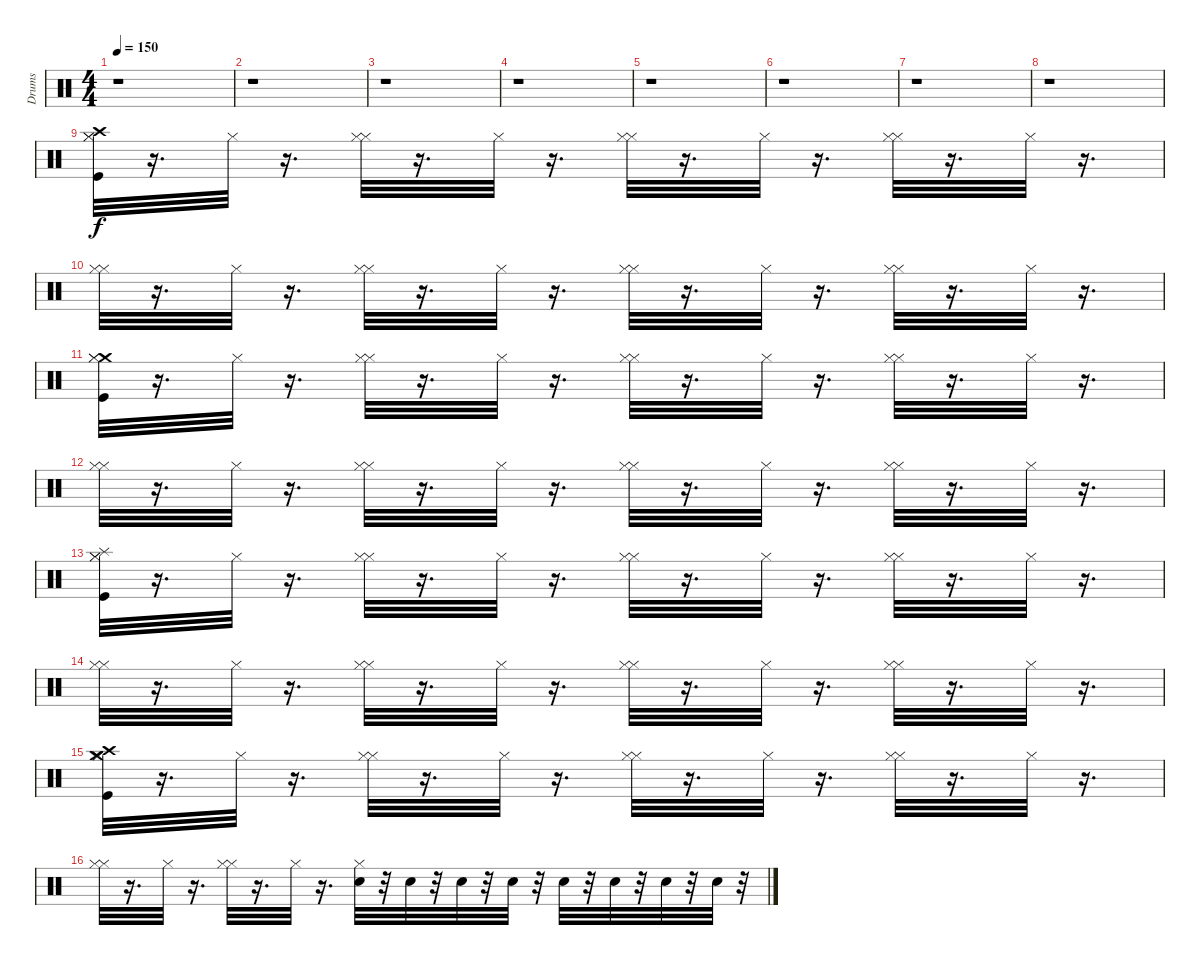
\track ("Drums" "Drums") {instrument percussion}
\staff {score}
\articulation defaults
\ts (4 4)
\tempo 150
\clef neutral
\ks c
r.1{dy f} |
r.1 |
r.1 |
r.1 |
r.1 |
r.1 |
r.1 |
r.1 |
("Crash high (hit)" "Kick (hit)" "Hi-Hat (closed)" "Hi-Hat (closed)").32 r.16{d} "Hi-Hat (closed)".32 r.16{d} ("Hi-Hat (closed)" "Hi-Hat (closed)").32 r.16{d} "Hi-Hat (closed)".32 r.16{d} ("Hi-Hat (closed)" "Hi-Hat (closed)").32 r.16{d} "Hi-Hat (closed)".32 r.16{d} ("Hi-Hat (closed)" "Hi-Hat (closed)").32 r.16{d} "Hi-Hat (closed)".32 r.16{d} |
("Hi-Hat (closed)" "Hi-Hat (closed)").32 r.16{d} "Hi-Hat (closed)".32 r.16{d} ("Hi-Hat (closed)" "Hi-Hat (closed)").32 r.16{d} "Hi-Hat (closed)".32 r.16{d} ("Hi-Hat (closed)" "Hi-Hat (closed)").32 r.16{d} "Hi-Hat (closed)".32 r.16{d} ("Hi-Hat (closed)" "Hi-Hat (closed)").32 r.16{d} "Hi-Hat (closed)".32 r.16{d} |
("Crash medium (hit)" "Kick (hit)" "Hi-Hat (closed)" "Hi-Hat (closed)").32 r.16{d} "Hi-Hat (closed)".32 r.16{d} ("Hi-Hat (closed)" "Hi-Hat (closed)").32 r.16{d} "Hi-Hat (closed)".32 r.16{d} ("Hi-Hat (closed)" "Hi-Hat (closed)").32 r.16{d} "Hi-Hat (closed)".32 r.16{d} ("Hi-Hat (closed)" "Hi-Hat (closed)").32 r.16{d} "Hi-Hat (closed)".32 r.16{d} |
("Hi-Hat (closed)" "Hi-Hat (closed)").32 r.16{d} "Hi-Hat (closed)".32 r.16{d} ("Hi-Hat (closed)" "Hi-Hat (closed)").32 r.16{d} "Hi-Hat (closed)".32 r.16{d} ("Hi-Hat (closed)" "Hi-Hat (closed)").32 r.16{d} "Hi-Hat (closed)".32 r.16{d} ("Hi-Hat (closed)" "Hi-Hat (closed)").32 r.16{d} "Hi-Hat (closed)".32 r.16{d} |
("Kick (hit)" "Splash (hit)" "Hi-Hat (closed)" "Hi-Hat (closed)").32 r.16{d} "Hi-Hat (closed)".32 r.16{d} ("Hi-Hat (closed)" "Hi-Hat (closed)").32 r.16{d} "Hi-Hat (closed)".32 r.16{d} ("Hi-Hat (closed)" "Hi-Hat (closed)").32 r.16{d} "Hi-Hat (closed)".32 r.16{d} ("Hi-Hat (closed)" "Hi-Hat (closed)").32 r.16{d} "Hi-Hat (closed)".32 r.16{d} |
("Hi-Hat (closed)" "Hi-Hat (closed)").32 r.16{d} "Hi-Hat (closed)".32 r.16{d} ("Hi-Hat (closed)" "Hi-Hat (closed)").32 r.16{d} "Hi-Hat (closed)".32 r.16{d} ("Hi-Hat (closed)" "Hi-Hat (closed)").32 r.16{d} "Hi-Hat (closed)".32 r.16{d} ("Hi-Hat (closed)" "Hi-Hat (closed)").32 r.16{d} "Hi-Hat (closed)".32 r.16{d} |
("Crash medium (hit)" "Crash high (hit)" "Kick (hit)" "Hi-Hat (closed)" "Hi-Hat (closed)").32 r.16{d} "Hi-Hat (closed)".32 r.16{d} ("Hi-Hat (closed)" "Hi-Hat (closed)").32 r.16{d} "Hi-Hat (closed)".32 r.16{d} ("Hi-Hat (closed)" "Hi-Hat (closed)").32 r.16{d} "Hi-Hat (closed)".32 r.16{d} ("Hi-Hat (closed)" "Hi-Hat (closed)").32 r.16{d} "Hi-Hat (closed)".32 r.16{d} |
("Hi-Hat (closed)" "Hi-Hat (closed)").32 r.16{d} "Hi-Hat (closed)".32 r.16{d} ("Hi-Hat (closed)" "Hi-Hat (closed)").32 r.16{d} "Hi-Hat (closed)".32 r.16{d} ("Hi-Hat (closed)" "Snare (hit) 2").32 r.32 "Snare (hit) 2".32 r.32 "Snare (hit) 2".32 r.32 "Snare (hit) 2".32 r.32 "Snare (hit) 2".32 r.32 "Snare (hit) 2".32 r.32 "Snare (hit) 2".32 r.32 "Snare (hit) 2".32 r.32
